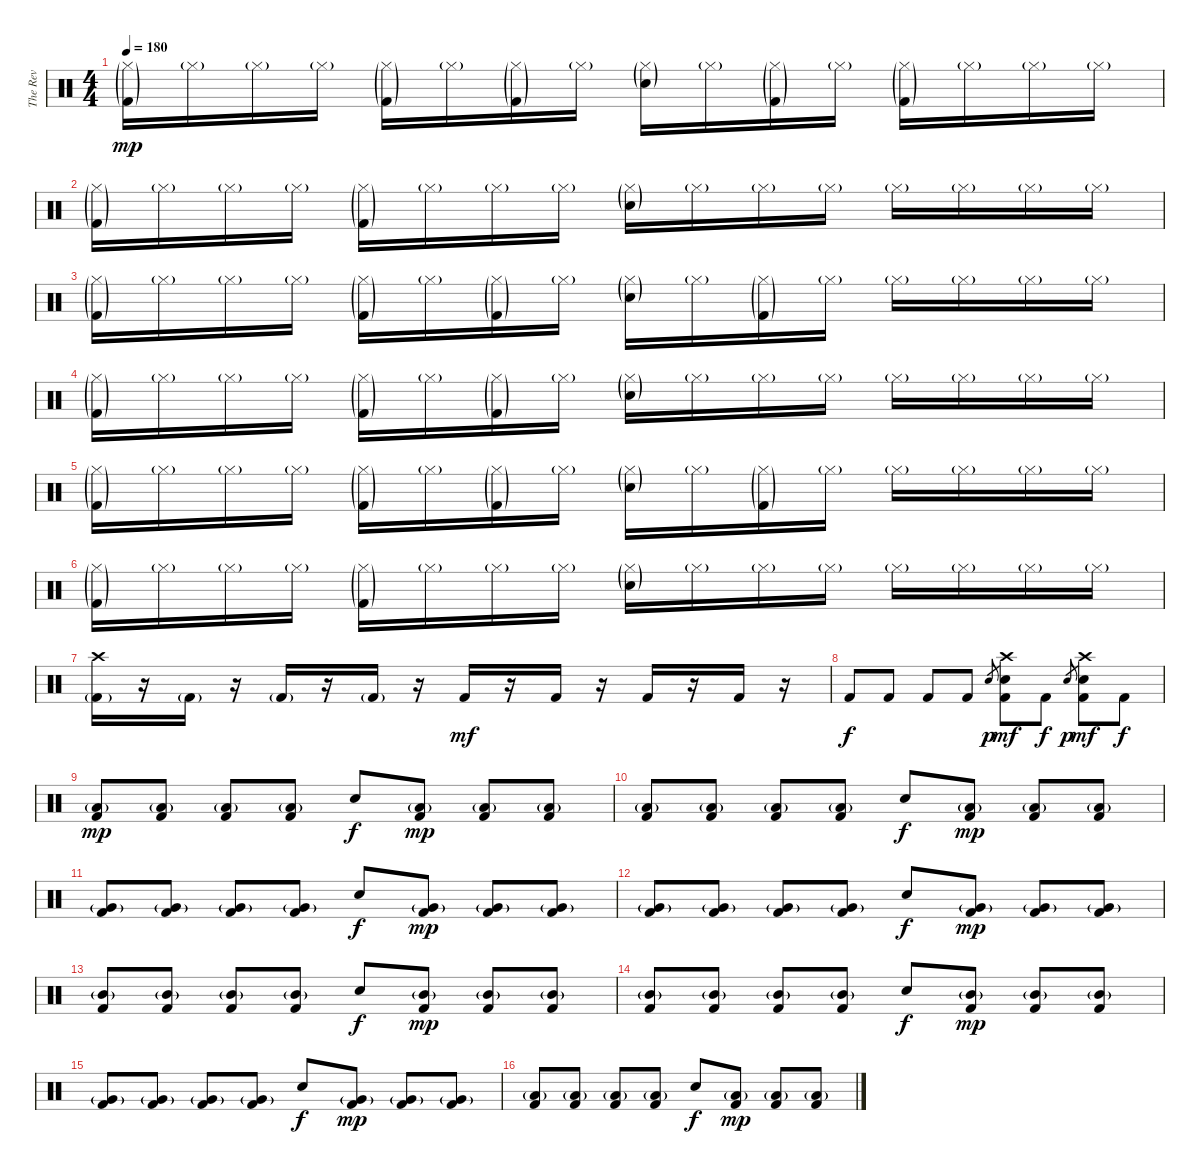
\track ("The Rev" "The Rev") {instrument percussion}
\staff {score}
\articulation defaults
\ts (4 4)
\tempo 180
\clef neutral
\ks c
("Hi-Hat (closed)"{g} "Kick (hit) 2"{g}).16{dy mp} "Hi-Hat (closed)"{g}.16 "Hi-Hat (closed)"{g}.16 "Hi-Hat (closed)"{g}.16 ("Hi-Hat (closed)"{g} "Kick (hit) 2"{g}).16 "Hi-Hat (closed)"{g}.16 ("Hi-Hat (closed)"{g} "Kick (hit) 2"{g}).16 "Hi-Hat (closed)"{g}.16 ("Hi-Hat (closed)"{g} "Snare (hit) 2"{g}).16 "Hi-Hat (closed)"{g}.16 ("Hi-Hat (closed)"{g} "Kick (hit) 2"{g}).16 "Hi-Hat (closed)"{g}.16 ("Hi-Hat (closed)"{g} "Kick (hit) 2"{g}).16 "Hi-Hat (closed)"{g}.16 "Hi-Hat (closed)"{g}.16 "Hi-Hat (closed)"{g}.16 |
("Hi-Hat (closed)"{g} "Kick (hit) 2"{g}).16 "Hi-Hat (closed)"{g}.16 "Hi-Hat (closed)"{g}.16 "Hi-Hat (closed)"{g}.16 ("Hi-Hat (closed)"{g} "Kick (hit) 2"{g}).16 "Hi-Hat (closed)"{g}.16 "Hi-Hat (closed)"{g}.16 "Hi-Hat (closed)"{g}.16 ("Hi-Hat (closed)"{g} "Snare (hit) 2"{g}).16 "Hi-Hat (closed)"{g}.16 "Hi-Hat (closed)"{g}.16 "Hi-Hat (closed)"{g}.16 "Hi-Hat (closed)"{g}.16 "Hi-Hat (closed)"{g}.16 "Hi-Hat (closed)"{g}.16 "Hi-Hat (closed)"{g}.16 |
("Hi-Hat (closed)"{g} "Kick (hit) 2"{g}).16 "Hi-Hat (closed)"{g}.16 "Hi-Hat (closed)"{g}.16 "Hi-Hat (closed)"{g}.16 ("Hi-Hat (closed)"{g} "Kick (hit) 2"{g}).16 "Hi-Hat (closed)"{g}.16 ("Hi-Hat (closed)"{g} "Kick (hit) 2"{g}).16 "Hi-Hat (closed)"{g}.16 ("Hi-Hat (closed)"{g} "Snare (hit) 2"{g}).16 "Hi-Hat (closed)"{g}.16 ("Hi-Hat (closed)"{g} "Kick (hit) 2"{g}).16 "Hi-Hat (closed)"{g}.16 "Hi-Hat (closed)"{g}.16 "Hi-Hat (closed)"{g}.16 "Hi-Hat (closed)"{g}.16 "Hi-Hat (closed)"{g}.16 |
("Hi-Hat (closed)"{g} "Kick (hit) 2"{g}).16 "Hi-Hat (closed)"{g}.16 "Hi-Hat (closed)"{g}.16 "Hi-Hat (closed)"{g}.16 ("Hi-Hat (closed)"{g} "Kick (hit) 2"{g}).16 "Hi-Hat (closed)"{g}.16 ("Hi-Hat (closed)"{g} "Kick (hit) 2"{g}).16 "Hi-Hat (closed)"{g}.16 ("Hi-Hat (closed)"{g} "Snare (hit) 2"{g}).16 "Hi-Hat (closed)"{g}.16 "Hi-Hat (closed)"{g}.16 "Hi-Hat (closed)"{g}.16 "Hi-Hat (closed)"{g}.16 "Hi-Hat (closed)"{g}.16 "Hi-Hat (closed)"{g}.16 "Hi-Hat (closed)"{g}.16 |
("Hi-Hat (closed)"{g} "Kick (hit) 2"{g}).16 "Hi-Hat (closed)"{g}.16 "Hi-Hat (closed)"{g}.16 "Hi-Hat (closed)"{g}.16 ("Hi-Hat (closed)"{g} "Kick (hit) 2"{g}).16 "Hi-Hat (closed)"{g}.16 ("Hi-Hat (closed)"{g} "Kick (hit) 2"{g}).16 "Hi-Hat (closed)"{g}.16 ("Hi-Hat (closed)"{g} "Snare (hit) 2"{g}).16 "Hi-Hat (closed)"{g}.16 ("Hi-Hat (closed)"{g} "Kick (hit) 2"{g}).16 "Hi-Hat (closed)"{g}.16 "Hi-Hat (closed)"{g}.16 "Hi-Hat (closed)"{g}.16 "Hi-Hat (closed)"{g}.16 "Hi-Hat (closed)"{g}.16 |
("Hi-Hat (closed)"{g} "Kick (hit) 2"{g}).16 "Hi-Hat (closed)"{g}.16 "Hi-Hat (closed)"{g}.16 "Hi-Hat (closed)"{g}.16 ("Hi-Hat (closed)"{g} "Kick (hit) 2"{g}).16 "Hi-Hat (closed)"{g}.16 "Hi-Hat (closed)"{g}.16 "Hi-Hat (closed)"{g}.16 ("Hi-Hat (closed)"{g} "Snare (hit) 2"{g}).16 "Hi-Hat (closed)"{g}.16 "Hi-Hat (closed)"{g}.16 "Hi-Hat (closed)"{g}.16 "Hi-Hat (closed)"{g}.16 "Hi-Hat (closed)"{g}.16 "Hi-Hat (closed)"{g}.16 "Hi-Hat (closed)"{g}.16 |
("Crash high (hit)" "Kick (hit) 2"{g}).16 r.16 "Kick (hit) 2"{g}.16 r.16 "Kick (hit) 2"{g}.16 r.16 "Kick (hit) 2"{g}.16 r.16 "Kick (hit) 2".16{dy mf} r.16 "Kick (hit) 2".16 r.16 "Kick (hit) 2".16 r.16 "Kick (hit) 2".16 r.16 |
"Kick (hit) 2".8{dy f} "Kick (hit) 2".8 "Kick (hit) 2".8 "Kick (hit) 2".8 "Snare (hit) 2".8{gr dy p} ("Crash high (hit)" "Snare (hit) 2" "Kick (hit) 2").8{dy mf} "Kick (hit) 2".8{dy f} "Snare (hit) 2".8{gr dy p} ("Crash high (hit)" "Snare (hit) 2" "Kick (hit) 2").8{dy mf} "Kick (hit) 2".8{dy f} |
("Low Floor Tom (hit)"{g} "Kick (hit) 2").8{dy mp} ("Low Floor Tom (hit)"{g} "Kick (hit) 2").8 ("Low Floor Tom (hit)"{g} "Kick (hit) 2").8 ("Low Floor Tom (hit)"{g} "Kick (hit) 2").8 "Snare (hit) 2".8{dy f} ("Low Floor Tom (hit)"{g} "Kick (hit) 2").8{dy mp} ("Low Floor Tom (hit)"{g} "Kick (hit) 2").8 ("Low Floor Tom (hit)"{g} "Kick (hit) 2").8 |
("Low Floor Tom (hit)"{g} "Kick (hit) 2").8 ("Low Floor Tom (hit)"{g} "Kick (hit) 2").8 ("Low Floor Tom (hit)"{g} "Kick (hit) 2").8 ("Low Floor Tom (hit)"{g} "Kick (hit) 2").8 "Snare (hit) 2".8{dy f} ("Low Floor Tom (hit)"{g} "Kick (hit) 2").8{dy mp} ("Low Floor Tom (hit)"{g} "Kick (hit) 2").8 ("Low Floor Tom (hit)"{g} "Kick (hit) 2").8 |
("Very Low Tom (hit)"{g} "Kick (hit) 2").8 ("Very Low Tom (hit)"{g} "Kick (hit) 2").8 ("Very Low Tom (hit)"{g} "Kick (hit) 2").8 ("Very Low Tom (hit)"{g} "Kick (hit) 2").8 "Snare (hit) 2".8{dy f} ("Very Low Tom (hit)"{g} "Kick (hit) 2").8{dy mp} ("Very Low Tom (hit)"{g} "Kick (hit) 2").8 ("Very Low Tom (hit)"{g} "Kick (hit) 2").8 |
("Very Low Tom (hit)"{g} "Kick (hit) 2").8 ("Very Low Tom (hit)"{g} "Kick (hit) 2").8 ("Very Low Tom (hit)"{g} "Kick (hit) 2").8 ("Very Low Tom (hit)"{g} "Kick (hit) 2").8 "Snare (hit) 2".8{dy f} ("Very Low Tom (hit)"{g} "Kick (hit) 2").8{dy mp} ("Very Low Tom (hit)"{g} "Kick (hit) 2").8 ("Very Low Tom (hit)"{g} "Kick (hit) 2").8 |
("Mid Tom (hit)"{g} "Kick (hit) 2").8 ("Mid Tom (hit)"{g} "Kick (hit) 2").8 ("Mid Tom (hit)"{g} "Kick (hit) 2").8 ("Mid Tom (hit)"{g} "Kick (hit) 2").8 "Snare (hit) 2".8{dy f} ("Mid Tom (hit)"{g} "Kick (hit) 2").8{dy mp} ("Mid Tom (hit)"{g} "Kick (hit) 2").8 ("Mid Tom (hit)"{g} "Kick (hit) 2").8 |
("Mid Tom (hit)"{g} "Kick (hit) 2").8 ("Mid Tom (hit)"{g} "Kick (hit) 2").8 ("Mid Tom (hit)"{g} "Kick (hit) 2").8 ("Mid Tom (hit)"{g} "Kick (hit) 2").8 "Snare (hit) 2".8{dy f} ("Mid Tom (hit)"{g} "Kick (hit) 2").8{dy mp} ("Mid Tom (hit)"{g} "Kick (hit) 2").8 ("Mid Tom (hit)"{g} "Kick (hit) 2").8 |
("Very Low Tom (hit)"{g} "Kick (hit) 2").8 ("Very Low Tom (hit)"{g} "Kick (hit) 2").8 ("Very Low Tom (hit)"{g} "Kick (hit) 2").8 ("Very Low Tom (hit)"{g} "Kick (hit) 2").8 "Snare (hit) 2".8{dy f} ("Very Low Tom (hit)"{g} "Kick (hit) 2").8{dy mp} ("Very Low Tom (hit)"{g} "Kick (hit) 2").8 ("Very Low Tom (hit)"{g} "Kick (hit) 2").8 |
("Low Tom (hit)"{g} "Kick (hit) 2").8 ("Low Tom (hit)"{g} "Kick (hit) 2").8 ("Low Tom (hit)"{g} "Kick (hit) 2").8 ("Low Tom (hit)"{g} "Kick (hit) 2").8 "Snare (hit) 2".8{dy f} ("Low Tom (hit)"{g} "Kick (hit) 2").8{dy mp} ("Low Tom (hit)"{g} "Kick (hit) 2").8 ("Low Tom (hit)"{g} "Kick (hit) 2").8
